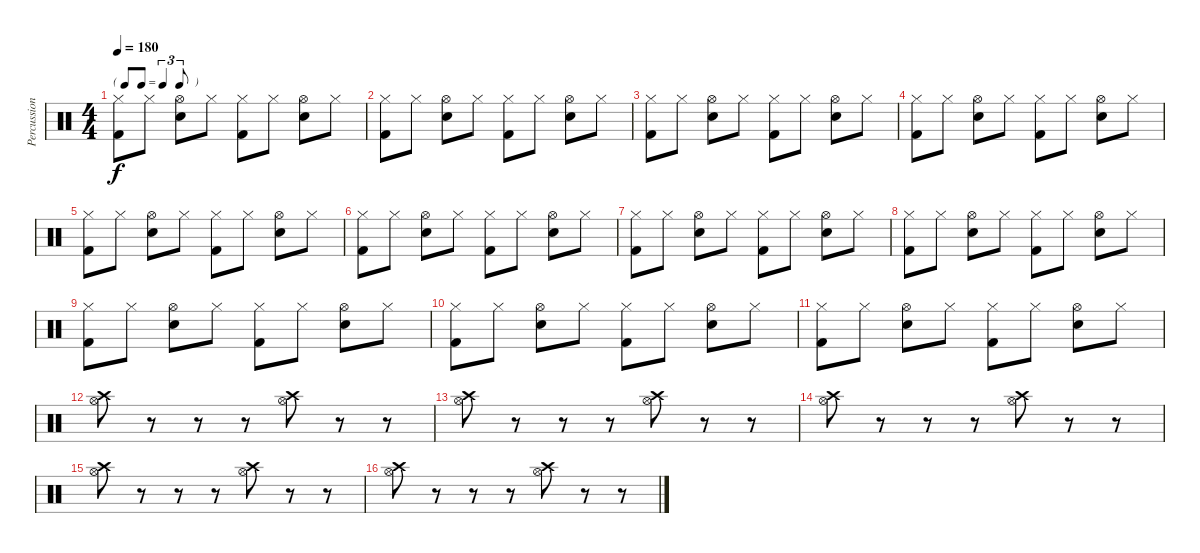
\track ("Percussions" "Percussion") {instrument percussion}
\staff {score}
\articulation defaults
\ts (4 4)
\tf triplet8th
\tempo 180
\clef neutral
\ks c
("Hi-Hat (closed)" "Kick (hit) 2").8{dy f} "Hi-Hat (closed)".8 ("Hi-Hat (open)" "Snare (hit) 2").8 "Hi-Hat (closed)".8 ("Hi-Hat (closed)" "Kick (hit) 2").8 "Hi-Hat (closed)".8 ("Hi-Hat (open)" "Snare (hit) 2").8 "Hi-Hat (closed)".8 |
("Hi-Hat (closed)" "Kick (hit) 2").8 "Hi-Hat (closed)".8 ("Hi-Hat (open)" "Snare (hit) 2").8 "Hi-Hat (closed)".8 ("Hi-Hat (closed)" "Kick (hit) 2").8 "Hi-Hat (closed)".8 ("Hi-Hat (open)" "Snare (hit) 2").8 "Hi-Hat (closed)".8 |
("Hi-Hat (closed)" "Kick (hit) 2").8 "Hi-Hat (closed)".8 ("Hi-Hat (open)" "Snare (hit) 2").8 "Hi-Hat (closed)".8 ("Hi-Hat (closed)" "Kick (hit) 2").8 "Hi-Hat (closed)".8 ("Hi-Hat (open)" "Snare (hit) 2").8 "Hi-Hat (closed)".8 |
("Hi-Hat (closed)" "Kick (hit) 2").8 "Hi-Hat (closed)".8 ("Hi-Hat (open)" "Snare (hit) 2").8 "Hi-Hat (closed)".8 ("Hi-Hat (closed)" "Kick (hit) 2").8 "Hi-Hat (closed)".8 ("Hi-Hat (open)" "Snare (hit) 2").8 "Hi-Hat (closed)".8 |
("Hi-Hat (closed)" "Kick (hit) 2").8 "Hi-Hat (closed)".8 ("Hi-Hat (open)" "Snare (hit) 2").8 "Hi-Hat (closed)".8 ("Hi-Hat (closed)" "Kick (hit) 2").8 "Hi-Hat (closed)".8 ("Hi-Hat (open)" "Snare (hit) 2").8 "Hi-Hat (closed)".8 |
("Hi-Hat (closed)" "Kick (hit) 2").8 "Hi-Hat (closed)".8 ("Hi-Hat (open)" "Snare (hit) 2").8 "Hi-Hat (closed)".8 ("Hi-Hat (closed)" "Kick (hit) 2").8 "Hi-Hat (closed)".8 ("Hi-Hat (open)" "Snare (hit) 2").8 "Hi-Hat (closed)".8 |
("Hi-Hat (closed)" "Kick (hit) 2").8 "Hi-Hat (closed)".8 ("Hi-Hat (open)" "Snare (hit) 2").8 "Hi-Hat (closed)".8 ("Hi-Hat (closed)" "Kick (hit) 2").8 "Hi-Hat (closed)".8 ("Hi-Hat (open)" "Snare (hit) 2").8 "Hi-Hat (closed)".8 |
("Hi-Hat (closed)" "Kick (hit) 2").8 "Hi-Hat (closed)".8 ("Hi-Hat (open)" "Snare (hit) 2").8 "Hi-Hat (closed)".8 ("Hi-Hat (closed)" "Kick (hit) 2").8 "Hi-Hat (closed)".8 ("Hi-Hat (open)" "Snare (hit) 2").8 "Hi-Hat (closed)".8 |
("Hi-Hat (closed)" "Kick (hit) 2").8 "Hi-Hat (closed)".8 ("Hi-Hat (open)" "Snare (hit) 2").8 "Hi-Hat (closed)".8 ("Hi-Hat (closed)" "Kick (hit) 2").8 "Hi-Hat (closed)".8 ("Hi-Hat (open)" "Snare (hit) 2").8 "Hi-Hat (closed)".8 |
("Hi-Hat (closed)" "Kick (hit) 2").8 "Hi-Hat (closed)".8 ("Hi-Hat (open)" "Snare (hit) 2").8 "Hi-Hat (closed)".8 ("Hi-Hat (closed)" "Kick (hit) 2").8 "Hi-Hat (closed)".8 ("Hi-Hat (open)" "Snare (hit) 2").8 "Hi-Hat (closed)".8 |
("Hi-Hat (closed)" "Kick (hit) 2").8 "Hi-Hat (closed)".8 ("Hi-Hat (open)" "Snare (hit) 2").8 "Hi-Hat (closed)".8 ("Hi-Hat (closed)" "Kick (hit) 2").8 "Hi-Hat (closed)".8 ("Hi-Hat (open)" "Snare (hit) 2").8 "Hi-Hat (closed)".8 |
("Crash high (hit)" "Hi-Hat (open)").8 r.8 r.8 r.8 ("Crash high (hit)" "Hi-Hat (open)").8 r.8 r.8 |
("Hi-Hat (open)" "Crash high (hit)").8 r.8 r.8 r.8 ("Hi-Hat (open)" "Crash high (hit)").8 r.8 r.8 |
("Crash high (hit)" "Hi-Hat (open)").8 r.8 r.8 r.8 ("Crash high (hit)" "Hi-Hat (open)").8 r.8 r.8 |
("Hi-Hat (open)" "Crash high (hit)").8 r.8 r.8 r.8 ("Hi-Hat (open)" "Crash high (hit)").8 r.8 r.8 |
("Crash high (hit)" "Hi-Hat (open)").8 r.8 r.8 r.8 ("Crash high (hit)" "Hi-Hat (open)").8 r.8 r.8
